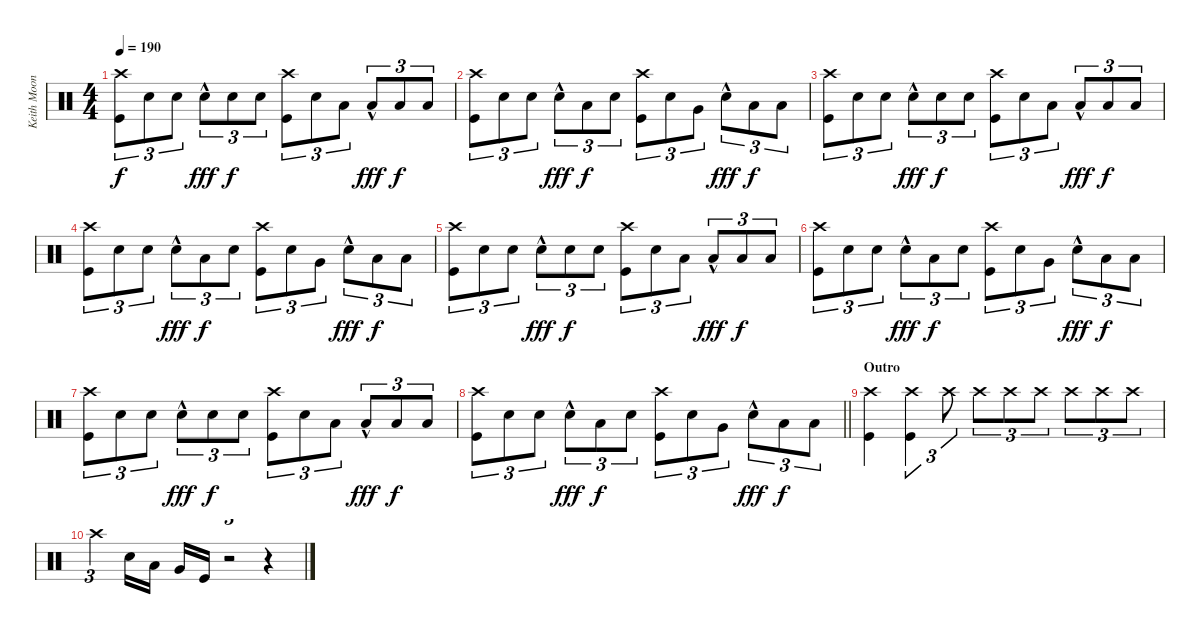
\track ("Keith Moon" "Keith Moon") {instrument percussion}
\staff {score}
\articulation defaults
\ts (4 4)
\tempo 190
\clef neutral
\ks c
("Crash high (hit)" "Kick (hit)").8{tu (3 2) dy f} "Snare (hit) 2".8{tu (3 2)} "Snare (hit) 2".8{tu (3 2)} "Snare (hit) 2"{hac}.8{tu (3 2) dy fff} "Snare (hit) 2".8{tu (3 2) dy f} "Snare (hit) 2".8{tu (3 2)} ("Crash high (hit)" "Kick (hit)").8{tu (3 2)} "Snare (hit) 2".8{tu (3 2)} "Low Tom (hit)".8{tu (3 2)} "Low Tom (hit)"{hac}.8{tu (3 2) dy fff} "Low Tom (hit)".8{tu (3 2) dy f} "Low Tom (hit)".8{tu (3 2)} |
("Crash high (hit)" "Kick (hit)").8{tu (3 2)} "Snare (hit) 2".8{tu (3 2)} "Snare (hit) 2".8{tu (3 2)} "Snare (hit) 2"{hac}.8{tu (3 2) dy fff} "Low Tom (hit)".8{tu (3 2) dy f} "Snare (hit) 2".8{tu (3 2)} ("Crash high (hit)" "Kick (hit)").8{tu (3 2)} "Snare (hit) 2".8{tu (3 2)} "Very Low Tom (hit)".8{tu (3 2)} "Snare (hit) 2"{hac}.8{tu (3 2) dy fff} "Low Tom (hit)".8{tu (3 2) dy f} "Low Tom (hit)".8{tu (3 2)} |
("Crash high (hit)" "Kick (hit)").8{tu (3 2)} "Snare (hit) 2".8{tu (3 2)} "Snare (hit) 2".8{tu (3 2)} "Snare (hit) 2"{hac}.8{tu (3 2) dy fff} "Snare (hit) 2".8{tu (3 2) dy f} "Snare (hit) 2".8{tu (3 2)} ("Crash high (hit)" "Kick (hit)").8{tu (3 2)} "Snare (hit) 2".8{tu (3 2)} "Low Tom (hit)".8{tu (3 2)} "Low Tom (hit)"{hac}.8{tu (3 2) dy fff} "Low Tom (hit)".8{tu (3 2) dy f} "Low Tom (hit)".8{tu (3 2)} |
("Crash high (hit)" "Kick (hit)").8{tu (3 2)} "Snare (hit) 2".8{tu (3 2)} "Snare (hit) 2".8{tu (3 2)} "Snare (hit) 2"{hac}.8{tu (3 2) dy fff} "Low Tom (hit)".8{tu (3 2) dy f} "Snare (hit) 2".8{tu (3 2)} ("Crash high (hit)" "Kick (hit)").8{tu (3 2)} "Snare (hit) 2".8{tu (3 2)} "Very Low Tom (hit)".8{tu (3 2)} "Snare (hit) 2"{hac}.8{tu (3 2) dy fff} "Low Tom (hit)".8{tu (3 2) dy f} "Low Tom (hit)".8{tu (3 2)} |
("Crash high (hit)" "Kick (hit)").8{tu (3 2)} "Snare (hit) 2".8{tu (3 2)} "Snare (hit) 2".8{tu (3 2)} "Snare (hit) 2"{hac}.8{tu (3 2) dy fff} "Snare (hit) 2".8{tu (3 2) dy f} "Snare (hit) 2".8{tu (3 2)} ("Crash high (hit)" "Kick (hit)").8{tu (3 2)} "Snare (hit) 2".8{tu (3 2)} "Low Tom (hit)".8{tu (3 2)} "Low Tom (hit)"{hac}.8{tu (3 2) dy fff} "Low Tom (hit)".8{tu (3 2) dy f} "Low Tom (hit)".8{tu (3 2)} |
("Crash high (hit)" "Kick (hit)").8{tu (3 2)} "Snare (hit) 2".8{tu (3 2)} "Snare (hit) 2".8{tu (3 2)} "Snare (hit) 2"{hac}.8{tu (3 2) dy fff} "Low Tom (hit)".8{tu (3 2) dy f} "Snare (hit) 2".8{tu (3 2)} ("Crash high (hit)" "Kick (hit)").8{tu (3 2)} "Snare (hit) 2".8{tu (3 2)} "Very Low Tom (hit)".8{tu (3 2)} "Snare (hit) 2"{hac}.8{tu (3 2) dy fff} "Low Tom (hit)".8{tu (3 2) dy f} "Low Tom (hit)".8{tu (3 2)} |
("Crash high (hit)" "Kick (hit)").8{tu (3 2)} "Snare (hit) 2".8{tu (3 2)} "Snare (hit) 2".8{tu (3 2)} "Snare (hit) 2"{hac}.8{tu (3 2) dy fff} "Snare (hit) 2".8{tu (3 2) dy f} "Snare (hit) 2".8{tu (3 2)} ("Crash high (hit)" "Kick (hit)").8{tu (3 2)} "Snare (hit) 2".8{tu (3 2)} "Low Tom (hit)".8{tu (3 2)} "Low Tom (hit)"{hac}.8{tu (3 2) dy fff} "Low Tom (hit)".8{tu (3 2) dy f} "Low Tom (hit)".8{tu (3 2)} |
\barLineRight lightlight
("Crash high (hit)" "Kick (hit)").8{tu (3 2)} "Snare (hit) 2".8{tu (3 2)} "Snare (hit) 2".8{tu (3 2)} "Snare (hit) 2"{hac}.8{tu (3 2) dy fff} "Low Tom (hit)".8{tu (3 2) dy f} "Snare (hit) 2".8{tu (3 2)} ("Crash high (hit)" "Kick (hit)").8{tu (3 2)} "Snare (hit) 2".8{tu (3 2)} "Very Low Tom (hit)".8{tu (3 2)} "Snare (hit) 2"{hac}.8{tu (3 2) dy fff} "Low Tom (hit)".8{tu (3 2) dy f} "Low Tom (hit)".8{tu (3 2)} |
\section ("" "Outro")
("Crash high (hit)" "Kick (hit)").4 ("Crash high (hit)" "Kick (hit)").4{tu (3 2)} "Crash high (hit)".8{tu (3 2)} "Crash high (hit)".8{tu (3 2)} "Crash high (hit)".8{tu (3 2)} "Crash high (hit)".8{tu (3 2)} "Crash high (hit)".8{tu (3 2)} "Crash high (hit)".8{tu (3 2)} "Crash high (hit)".8{tu (3 2)} |
"Crash high (hit)".4{tu (3 2)} "Snare (hit) 2".16 "Low Tom (hit)".16 "Very Low Tom (hit)".16 "Kick (hit)".16 r.2{tu (3 2)} r.4
